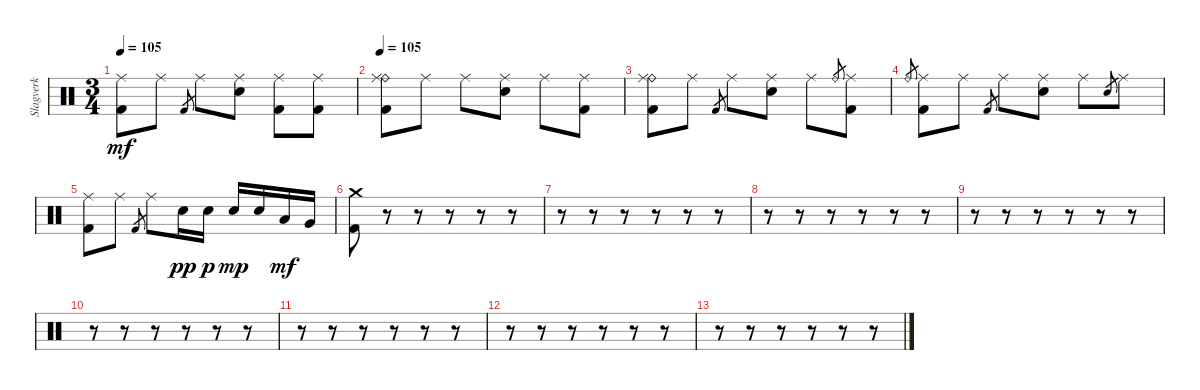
\track ("Slagverk" "Slagverk") {instrument percussion}
\staff {score}
\articulation defaults
\ts (3 4)
\tempo 105
\clef neutral
\ks c
("Ride (middle)" "Kick (hit) 2").8{dy mf} "Ride (middle)".8 "Kick (hit) 2".8{gr} "Ride (middle)".8 ("Ride (middle)" "Electric Snare (hit)").8 ("Ride (middle)" "Kick (hit) 2").8 ("Ride (middle)" "Kick (hit) 2").8 |
\tempo 105
("Ride (bell)" "Ride (middle)" "Kick (hit) 2").8 "Ride (middle)".8 "Ride (middle)".8 ("Ride (middle)" "Electric Snare (hit)").8 "Ride (middle)".8 ("Ride (middle)" "Kick (hit) 2").8 |
("Ride (bell)" "Ride (middle)" "Kick (hit) 2").8 "Ride (middle)".8 "Kick (hit) 2".8{gr} "Ride (middle)".8 ("Ride (middle)" "Electric Snare (hit)").8 "Ride (middle)".8 "Ride (bell)".8{gr} ("Ride (middle)" "Kick (hit) 2").8 |
"Ride (bell)".8{gr} ("Ride (middle)" "Kick (hit) 2").8 "Ride (middle)".8 "Kick (hit) 2".8{gr} "Ride (middle)".8 ("Ride (middle)" "Electric Snare (hit)").8 "Ride (middle)".8 "Electric Snare (hit)".8{gr} "Ride (middle)".8 |
("Ride (middle)" "Kick (hit) 2").8 "Ride (middle)".8 "Kick (hit) 2".8{gr} "Ride (middle)".8 "Electric Snare (hit)".16{dy pp} "Electric Snare (hit)".16{dy p} "Electric Snare (hit)".16{dy mp} "Electric Snare (hit)".16 "Low Tom (hit)".16{dy mf} "Very Low Tom (hit)".16 |
("Crash medium (hit)" "Kick (hit) 2").8 r.8 r.8 r.8 r.8 r.8 |
r.8 r.8 r.8 r.8 r.8 r.8 |
r.8 r.8 r.8 r.8 r.8 r.8 |
r.8 r.8 r.8 r.8 r.8 r.8 |
r.8 r.8 r.8 r.8 r.8 r.8 |
r.8 r.8 r.8 r.8 r.8 r.8 |
r.8 r.8 r.8 r.8 r.8 r.8 |
r.8 r.8 r.8 r.8 r.8 r.8
